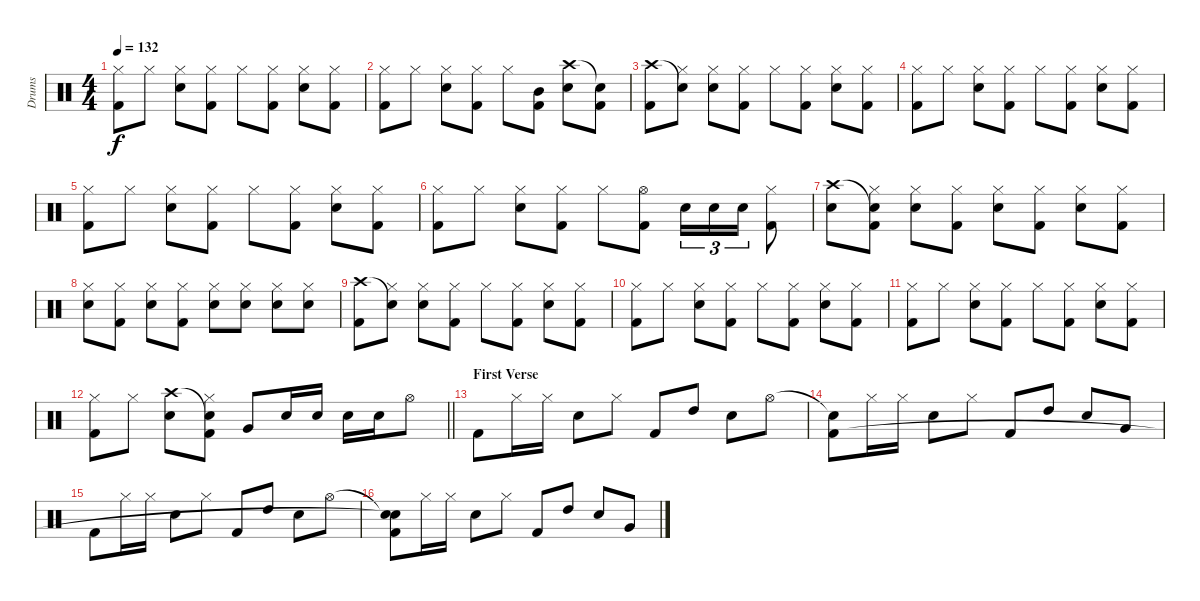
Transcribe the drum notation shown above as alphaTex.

\track ("Drums" "Drums") {instrument percussion}
\staff {score}
\articulation defaults
\ts (4 4)
\tempo 132
\clef neutral
\ks c
("Hi-Hat (closed)" "Kick (hit) 2").8{dy f} "Hi-Hat (closed)".8 ("Hi-Hat (closed)" "Snare (hit) 2").8 ("Hi-Hat (closed)" "Kick (hit) 2").8 "Hi-Hat (closed)".8 ("Hi-Hat (closed)" "Kick (hit) 2").8 ("Hi-Hat (closed)" "Snare (hit) 2").8 ("Hi-Hat (closed)" "Kick (hit) 2").8 |
("Hi-Hat (closed)" "Kick (hit) 2").8 "Hi-Hat (closed)".8 ("Hi-Hat (closed)" "Snare (hit) 2").8 ("Hi-Hat (closed)" "Kick (hit) 2").8 "Hi-Hat (closed)".8 ("Mid Tom (hit)" "Kick (hit) 2").8 ("Crash high (hit)" "Snare (hit) 2").8 ("Snare (hit)"{t} "Kick (hit) 2").8 |
("Crash high (hit)" "Kick (hit) 2").8 ("Snare (hit)"{t} "Hi-Hat (closed)").8 ("Hi-Hat (closed)" "Snare (hit) 2").8 ("Hi-Hat (closed)" "Kick (hit) 2").8 "Hi-Hat (closed)".8 ("Hi-Hat (closed)" "Kick (hit) 2").8 ("Hi-Hat (closed)" "Snare (hit) 2").8 ("Hi-Hat (closed)" "Kick (hit) 2").8 |
("Hi-Hat (closed)" "Kick (hit) 2").8 "Hi-Hat (closed)".8 ("Hi-Hat (closed)" "Snare (hit) 2").8 ("Hi-Hat (closed)" "Kick (hit) 2").8 "Hi-Hat (closed)".8 ("Hi-Hat (closed)" "Kick (hit) 2").8 ("Hi-Hat (closed)" "Snare (hit) 2").8 ("Hi-Hat (closed)" "Kick (hit) 2").8 |
("Hi-Hat (closed)" "Kick (hit) 2").8 "Hi-Hat (closed)".8 ("Hi-Hat (closed)" "Snare (hit) 2").8 ("Hi-Hat (closed)" "Kick (hit) 2").8 "Hi-Hat (closed)".8 ("Hi-Hat (closed)" "Kick (hit) 2").8 ("Hi-Hat (closed)" "Snare (hit) 2").8 ("Hi-Hat (closed)" "Kick (hit) 2").8 |
("Hi-Hat (closed)" "Kick (hit) 2").8 "Hi-Hat (closed)".8 ("Hi-Hat (closed)" "Snare (hit) 2").8 ("Hi-Hat (closed)" "Kick (hit) 2").8 "Hi-Hat (closed)".8 ("Hi-Hat (open)" "Kick (hit) 2").8 "Snare (hit) 2".16{tu (3 2)} "Snare (hit) 2".16{tu (3 2)} "Snare (hit) 2".16{tu (3 2)} ("Hi-Hat (closed)" "Kick (hit) 2").8 |
("Crash high (hit)" "Snare (hit) 2").8 ("Snare (hit)"{t} "Hi-Hat (closed)" "Kick (hit) 2").8 ("Hi-Hat (closed)" "Snare (hit) 2").8 ("Hi-Hat (closed)" "Kick (hit) 2").8 ("Hi-Hat (closed)" "Snare (hit) 2").8 ("Hi-Hat (closed)" "Kick (hit) 2").8 ("Hi-Hat (closed)" "Snare (hit) 2").8 ("Hi-Hat (closed)" "Kick (hit) 2").8 |
("Hi-Hat (closed)" "Snare (hit) 2").8 ("Hi-Hat (closed)" "Kick (hit) 2").8 ("Hi-Hat (closed)" "Snare (hit) 2").8 ("Hi-Hat (closed)" "Kick (hit) 2").8 ("Hi-Hat (closed)" "Snare (hit) 2").8 ("Hi-Hat (closed)" "Snare (hit) 2").8 ("Hi-Hat (closed)" "Snare (hit) 2").8 ("Hi-Hat (closed)" "Snare (hit) 2").8 |
("Crash high (hit)" "Kick (hit) 2").8 ("Snare (hit)"{t} "Hi-Hat (closed)").8 ("Hi-Hat (closed)" "Snare (hit) 2").8 ("Hi-Hat (closed)" "Kick (hit) 2").8 "Hi-Hat (closed)".8 ("Hi-Hat (closed)" "Kick (hit) 2").8 ("Hi-Hat (closed)" "Snare (hit) 2").8 ("Hi-Hat (closed)" "Kick (hit) 2").8 |
("Hi-Hat (closed)" "Kick (hit) 2").8 "Hi-Hat (closed)".8 ("Hi-Hat (closed)" "Snare (hit) 2").8 ("Hi-Hat (closed)" "Kick (hit) 2").8 "Hi-Hat (closed)".8 ("Hi-Hat (closed)" "Kick (hit) 2").8 ("Hi-Hat (closed)" "Snare (hit) 2").8 ("Hi-Hat (closed)" "Kick (hit) 2").8 |
("Hi-Hat (closed)" "Kick (hit) 2").8 "Hi-Hat (closed)".8 ("Hi-Hat (closed)" "Snare (hit) 2").8 ("Hi-Hat (closed)" "Kick (hit) 2").8 "Hi-Hat (closed)".8 ("Hi-Hat (closed)" "Kick (hit) 2").8 ("Hi-Hat (closed)" "Snare (hit) 2").8 ("Hi-Hat (closed)" "Kick (hit) 2").8 |
\barLineRight lightlight
("Hi-Hat (closed)" "Kick (hit) 2").8 "Hi-Hat (closed)".8 ("Crash high (hit)" "Snare (hit) 2").8 ("Snare (hit)"{t} "Hi-Hat (closed)" "Kick (hit) 2").8 "Very Low Tom (hit)".8 "Snare (hit) 2".16 "Snare (hit) 2".16 "Snare (hit) 2".16 "Snare (hit) 2".16 "Hi-Hat (open)".8 |
\section ("" "First Verse")
"Kick (hit) 2".8 "Hi-Hat (closed)".16 "Hi-Hat (closed)".16 "Snare (hit) 2".8 "Hi-Hat (closed)".8 "Kick (hit) 2".8 "High Tom (hit)".8 "Snare (hit) 2".8 "Hi-Hat (open)".8 |
("Snare (hit)"{t} "Kick (hit) 2").8 "Hi-Hat (closed)".16 "Hi-Hat (closed)".16 "Snare (hit) 2".8 "Hi-Hat (closed)".8 "Kick (hit) 2".8 "High Tom (hit)".8 "Snare (hit) 2".8 "Very Low Tom (hit)".8 |
"Kick (hit) 2".8 "Hi-Hat (closed)".16 "Hi-Hat (closed)".16 "Snare (hit) 2".8 "Hi-Hat (closed)".8 "Kick (hit) 2".8 "High Tom (hit)".8 "Snare (hit) 2".8 "Hi-Hat (open)".8 |
("Snare (hit)"{t} "Snare (hit)"{t} "Kick (hit) 2").8 "Hi-Hat (closed)".16 "Hi-Hat (closed)".16 "Snare (hit) 2".8 "Hi-Hat (closed)".8 "Kick (hit) 2".8 "High Tom (hit)".8 "Snare (hit) 2".8 "Very Low Tom (hit)".8
